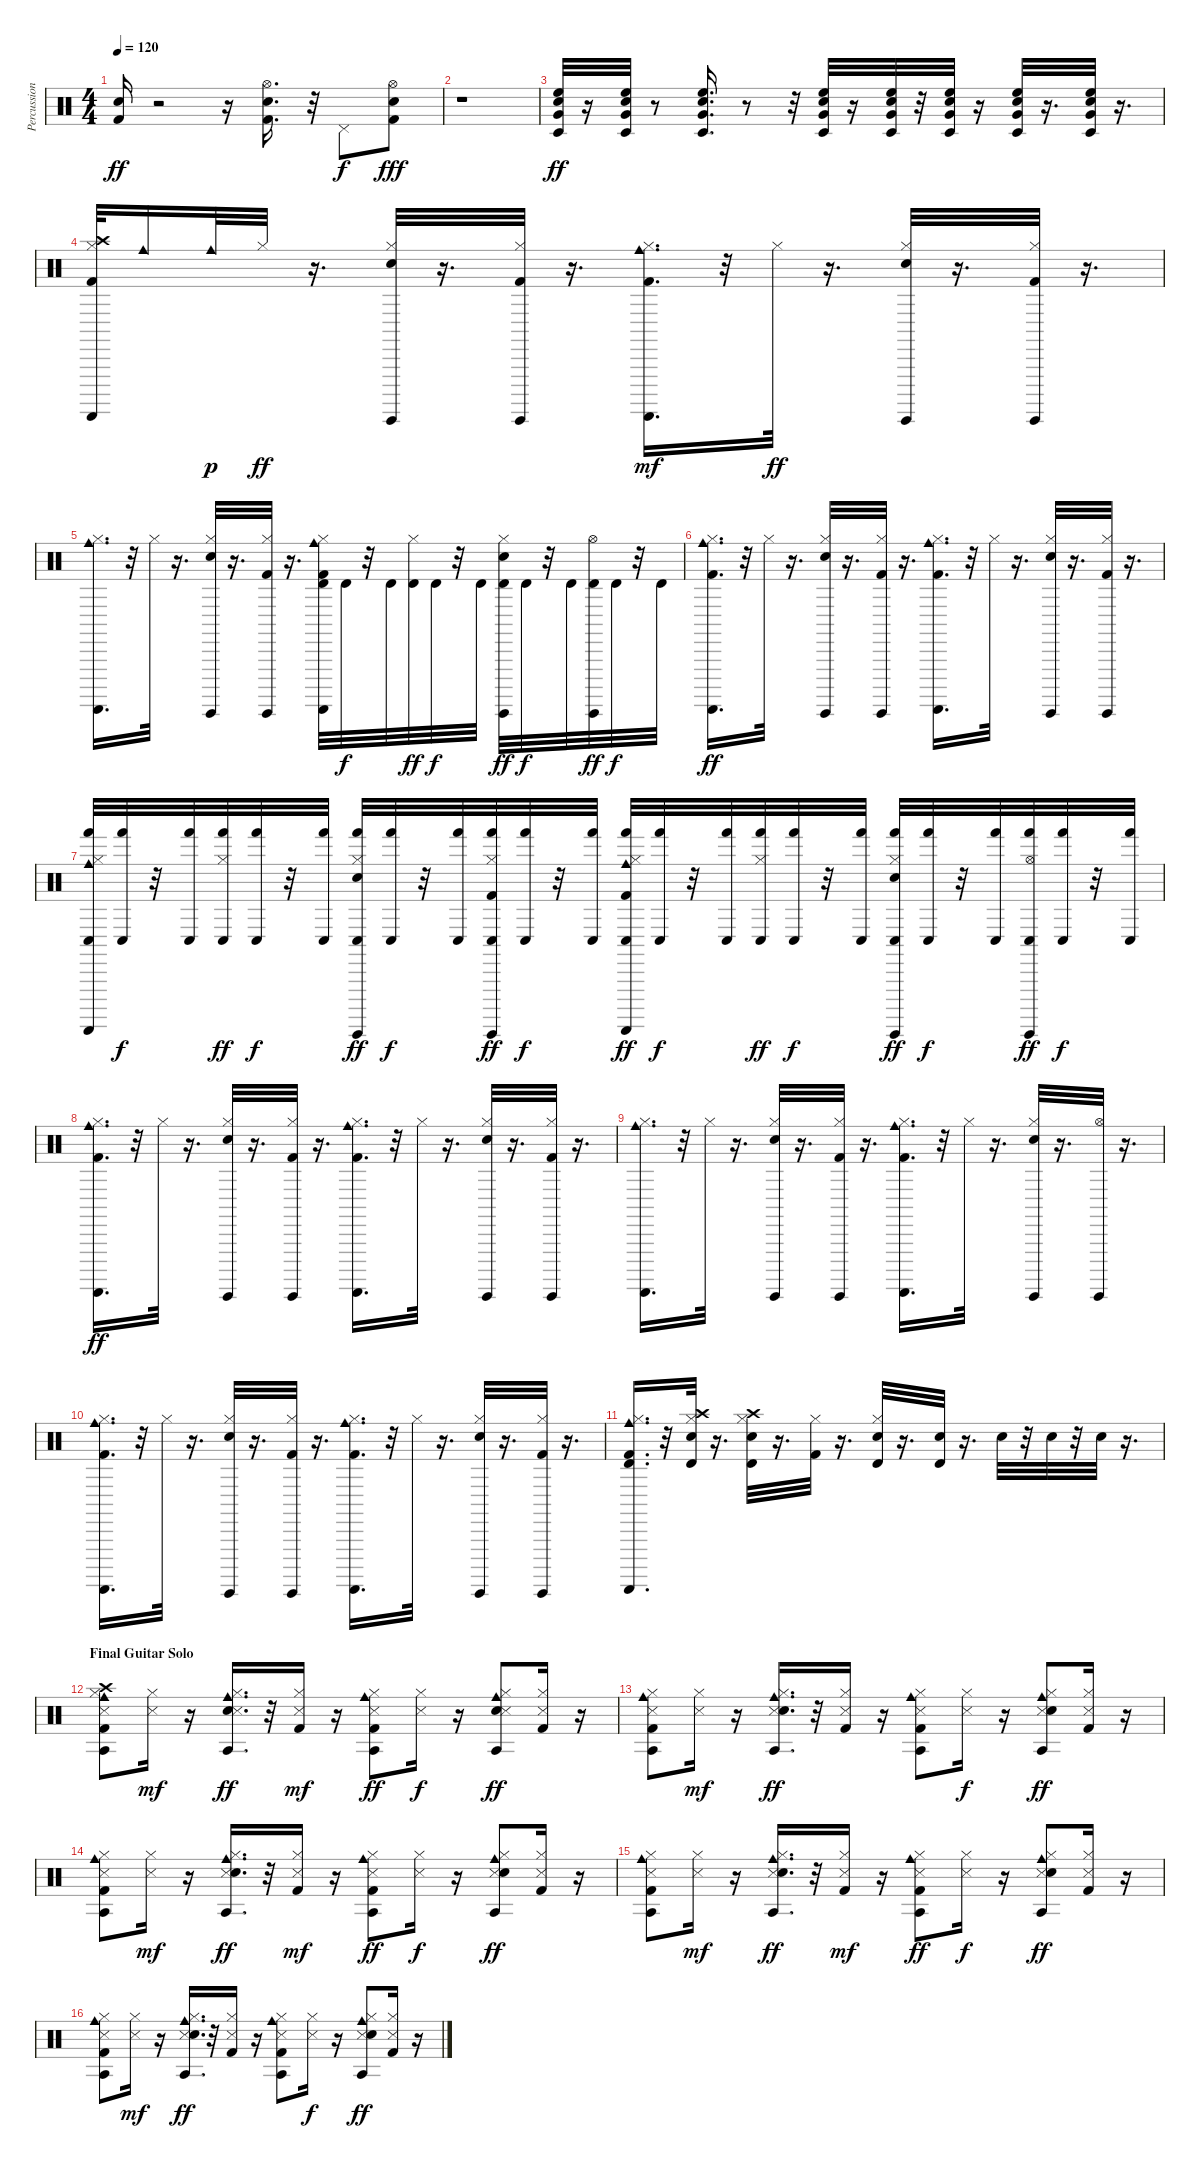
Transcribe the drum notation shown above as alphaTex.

\track ("Percussion" "Percussion") {instrument percussion}
\staff {score}
\articulation defaults
\ts (4 4)
\tempo 120
\clef neutral
\ks c
("Kick (hit) 2" "Snare (hit) 2").16{dy ff} r.2 r.16 ("Snare (hit) 2" "Kick (hit) 2" "Hi-Hat (open)").16{d} r.32 "Pedal Hi-Hat (hit)".8{dy f} ("Kick (hit) 2" "Snare (hit) 2" "Hi-Hat (open)").8{dy fff} |
r.1 |
("Timbale low (hit)" "Electric Snare (hit)" "High Floor Tom (hit)" "Very Low Tom (hit)").32{dy ff} r.16 ("Very Low Tom (hit)" "Timbale low (hit)" "Electric Snare (hit)" "High Floor Tom (hit)").32 r.8 ("Very Low Tom (hit)" "Timbale low (hit)" "High Floor Tom (hit)" "Electric Snare (hit)").16{d} r.8 r.32 ("Very Low Tom (hit)" "Electric Snare (hit)" "Timbale low (hit)" "High Floor Tom (hit)").32 r.16 ("Very Low Tom (hit)" "Timbale low (hit)" "Electric Snare (hit)" "High Floor Tom (hit)").32 r.32 ("Very Low Tom (hit)" "High Floor Tom (hit)" "Timbale low (hit)" "Electric Snare (hit)").32 r.16 ("Very Low Tom (hit)" "High Floor Tom (hit)" "Electric Snare (hit)" "Timbale low (hit)").32 r.16{d} ("Very Low Tom (hit)" "Electric Snare (hit)" "High Floor Tom (hit)" "Timbale low (hit)").32 r.16{d} |
("Kick (hit) 2" "Hi-Hat (closed)" "Crash high (hit)" "Guiro (scrap-return)").32 "Cowbell medium (hit)".16 "Cowbell medium (hit)".32{dy p} "Hi-Hat (closed)".32{dy ff} r.16{d} ("Guiro (hit)" "Snare (hit) 2" "Hi-Hat (closed)").32 r.16{d} ("Hi-Hat (closed)" "Kick (hit) 2" "Guiro (hit)").32 r.16{d} ("Guiro (scrap-return)" "Kick (hit) 2" "Hi-Hat (closed)" "Cowbell medium (hit)").16{d dy mf} r.32 "Hi-Hat (closed)".32{dy ff} r.16{d} ("Hi-Hat (closed)" "Guiro (hit)" "Snare (hit) 2").32 r.16{d} ("Kick (hit) 2" "Guiro (hit)" "Hi-Hat (closed)").32 r.16{d} |
("Cowbell medium (hit)" "Guiro (scrap-return)" "Hi-Hat (closed)").16{d} r.32 "Hi-Hat (closed)".32 r.16{d} ("Guiro (hit)" "Snare (hit) 2" "Hi-Hat (closed)").32 r.16{d} ("Hi-Hat (closed)" "Kick (hit) 2" "Guiro (hit)").32 r.16{d} ("Guiro (scrap-return)" "Kick (hit) 2" "Hi-Hat (closed)" "Timbale high (hit)" "Cowbell medium (hit)").32 "Timbale high (hit)".32{dy f} r.32 "Timbale high (hit)".32 ("Timbale high (hit)" "Hi-Hat (closed)").32{dy ff} "Timbale high (hit)".32{dy f} r.32 "Timbale high (hit)".32 ("Timbale high (hit)" "Guiro (hit)" "Snare (hit) 2" "Hi-Hat (closed)").32{dy ff} "Timbale high (hit)".32{dy f} r.32 "Timbale high (hit)".32 ("Timbale high (hit)" "Hi-Hat (open)" "Guiro (hit)").32{dy ff} "Timbale high (hit)".32{dy f} r.32 "Timbale high (hit)".32 |
("Guiro (scrap-return)" "Kick (hit) 2" "Hi-Hat (closed)" "Cowbell medium (hit)").16{d dy ff} r.32 "Hi-Hat (closed)".32 r.16{d} ("Guiro (hit)" "Snare (hit) 2" "Hi-Hat (closed)").32 r.16{d} ("Hi-Hat (closed)" "Kick (hit) 2" "Guiro (hit)").32 r.16{d} ("Guiro (scrap-return)" "Kick (hit) 2" "Hi-Hat (closed)" "Cowbell medium (hit)").16{d} r.32 "Hi-Hat (closed)".32 r.16{d} ("Guiro (hit)" "Snare (hit) 2" "Hi-Hat (closed)").32 r.16{d} ("Guiro (hit)" "Hi-Hat (closed)" "Kick (hit) 2").32 r.16{d} |
("Conga low (hit)" "Guiro (scrap-return)" "Hi-Hat (closed)" "Hand (hit)" "Cowbell medium (hit)").32 ("Conga low (hit)" "Hand (hit)").32{dy f} r.32 ("Conga low (hit)" "Hand (hit)").32 ("Conga low (hit)" "Hi-Hat (closed)" "Hand (hit)").32{dy ff} ("Conga low (hit)" "Hand (hit)").32{dy f} r.32 ("Conga low (hit)" "Hand (hit)").32 ("Conga low (hit)" "Hand (hit)" "Guiro (hit)" "Snare (hit) 2" "Hi-Hat (closed)").32{dy ff} ("Conga low (hit)" "Hand (hit)").32{dy f} r.32 ("Conga low (hit)" "Hand (hit)").32 ("Conga low (hit)" "Hand (hit)" "Hi-Hat (closed)" "Kick (hit) 2" "Guiro (hit)").32{dy ff} ("Conga low (hit)" "Hand (hit)").32{dy f} r.32 ("Conga low (hit)" "Hand (hit)").32 ("Cowbell medium (hit)" "Hand (hit)" "Guiro (scrap-return)" "Kick (hit) 2" "Hi-Hat (closed)" "Conga low (hit)").32{dy ff} ("Conga low (hit)" "Hand (hit)").32{dy f} r.32 ("Conga low (hit)" "Hand (hit)").32 ("Conga low (hit)" "Hand (hit)" "Hi-Hat (closed)").32{dy ff} ("Hand (hit)" "Conga low (hit)").32{dy f} r.32 ("Conga low (hit)" "Hand (hit)").32 ("Hand (hit)" "Guiro (hit)" "Snare (hit) 2" "Hi-Hat (closed)" "Conga low (hit)").32{dy ff} ("Conga low (hit)" "Hand (hit)").32{dy f} r.32 ("Conga low (hit)" "Hand (hit)").32 ("Conga low (hit)" "Hand (hit)" "Hi-Hat (open)" "Guiro (hit)").32{dy ff} ("Conga low (hit)" "Hand (hit)").32{dy f} r.32 ("Conga low (hit)" "Hand (hit)").32 |
("Guiro (scrap-return)" "Kick (hit) 2" "Hi-Hat (closed)" "Cowbell medium (hit)").16{d dy ff} r.32 "Hi-Hat (closed)".32 r.16{d} ("Guiro (hit)" "Snare (hit) 2" "Hi-Hat (closed)").32 r.16{d} ("Hi-Hat (closed)" "Kick (hit) 2" "Guiro (hit)").32 r.16{d} ("Cowbell medium (hit)" "Guiro (scrap-return)" "Kick (hit) 2" "Hi-Hat (closed)").16{d} r.32 "Hi-Hat (closed)".32 r.16{d} ("Guiro (hit)" "Snare (hit) 2" "Hi-Hat (closed)").32 r.16{d} ("Guiro (hit)" "Hi-Hat (closed)" "Kick (hit) 2").32 r.16{d} |
("Cowbell medium (hit)" "Guiro (scrap-return)" "Hi-Hat (closed)").16{d} r.32 "Hi-Hat (closed)".32 r.16{d} ("Guiro (hit)" "Snare (hit) 2" "Hi-Hat (closed)").32 r.16{d} ("Hi-Hat (closed)" "Kick (hit) 2" "Guiro (hit)").32 r.16{d} ("Guiro (scrap-return)" "Kick (hit) 2" "Hi-Hat (closed)" "Cowbell medium (hit)").16{d} r.32 "Hi-Hat (closed)".32 r.16{d} ("Guiro (hit)" "Snare (hit) 2" "Hi-Hat (closed)").32 r.16{d} ("Hi-Hat (open)" "Guiro (hit)").32 r.16{d} |
("Guiro (scrap-return)" "Kick (hit) 2" "Hi-Hat (closed)" "Cowbell medium (hit)").16{d} r.32 "Hi-Hat (closed)".32 r.16{d} ("Guiro (hit)" "Snare (hit) 2" "Hi-Hat (closed)").32 r.16{d} ("Hi-Hat (closed)" "Kick (hit) 2" "Guiro (hit)").32 r.16{d} ("Guiro (scrap-return)" "Kick (hit) 2" "Hi-Hat (closed)" "Cowbell medium (hit)").16{d} r.32 "Hi-Hat (closed)".32 r.16{d} ("Guiro (hit)" "Snare (hit) 2" "Hi-Hat (closed)").32 r.16{d} ("Guiro (hit)" "Hi-Hat (closed)" "Kick (hit) 2").32 r.16{d} |
("Hi-Hat (closed)" "Guiro (scrap-return)" "Kick (hit) 2" "Timbale high (hit)" "Cowbell medium (hit)").16{d} r.32 ("Crash high (hit)" "Hi-Hat (closed)" "Electric Snare (hit)" "Timbale high (hit)").32 r.16{d} ("Crash high (hit)" "Hi-Hat (closed)" "Electric Snare (hit)" "Timbale high (hit)").32 r.16{d} ("Hi-Hat (closed)" "Kick (hit) 2").32 r.16{d} ("Hi-Hat (closed)" "Timbale high (hit)" "Electric Snare (hit)").32 r.16{d} ("Electric Snare (hit)" "Timbale high (hit)").32 r.16{d} "Electric Snare (hit)".32 r.32 "Electric Snare (hit)".32 r.32 "Electric Snare (hit)".32 r.16{d} |
\section ("" "Final Guitar Solo")
("Kick (hit) 2" "Hi-Hat (closed)" "Agogo tow (hit)" "Crash high (hit)" "Cowbell medium (hit)" "Snare (side stick) 3").8 ("Hi-Hat (closed)" "Snare (side stick) 3").16{dy mf} r.16 ("Snare (hit) 2" "Hi-Hat (closed)" "Agogo tow (hit)" "Cowbell medium (hit)" "Snare (side stick) 3").16{d dy ff} r.32 ("Kick (hit) 2" "Hi-Hat (closed)" "Snare (side stick) 3").16{dy mf} r.16 ("Kick (hit) 2" "Hi-Hat (closed)" "Agogo tow (hit)" "Cowbell medium (hit)" "Snare (side stick) 3").8{dy ff} ("Hi-Hat (closed)" "Snare (side stick) 3").16{dy f} r.16 ("Snare (hit) 2" "Hi-Hat (closed)" "Agogo tow (hit)" "Cowbell medium (hit)" "Snare (side stick) 3").8{dy ff} ("Kick (hit) 2" "Hi-Hat (closed)" "Snare (side stick) 3").16 r.16 |
("Cowbell medium (hit)" "Snare (side stick) 3" "Hi-Hat (closed)" "Agogo tow (hit)" "Kick (hit) 2").8 ("Snare (side stick) 3" "Hi-Hat (closed)").16{dy mf} r.16 ("Cowbell medium (hit)" "Snare (side stick) 3" "Hi-Hat (closed)" "Agogo tow (hit)" "Snare (hit) 2").16{d dy ff} r.32 ("Snare (side stick) 3" "Hi-Hat (closed)" "Kick (hit) 2").16 r.16 ("Cowbell medium (hit)" "Snare (side stick) 3" "Hi-Hat (closed)" "Agogo tow (hit)" "Kick (hit) 2").8 ("Snare (side stick) 3" "Hi-Hat (closed)").16{dy f} r.16 ("Cowbell medium (hit)" "Snare (side stick) 3" "Hi-Hat (closed)" "Agogo tow (hit)" "Snare (hit) 2").8{dy ff} ("Snare (side stick) 3" "Hi-Hat (closed)" "Kick (hit) 2").16 r.16 |
("Snare (side stick) 3" "Agogo tow (hit)" "Kick (hit) 2" "Cowbell medium (hit)" "Hi-Hat (closed)").8 ("Snare (side stick) 3" "Hi-Hat (closed)").16{dy mf} r.16 ("Snare (side stick) 3" "Agogo tow (hit)" "Snare (hit) 2" "Cowbell medium (hit)" "Hi-Hat (closed)").16{d dy ff} r.32 ("Snare (side stick) 3" "Kick (hit) 2" "Hi-Hat (closed)").16{dy mf} r.16 ("Snare (side stick) 3" "Agogo tow (hit)" "Kick (hit) 2" "Cowbell medium (hit)" "Hi-Hat (closed)").8{dy ff} ("Snare (side stick) 3" "Hi-Hat (closed)").16{dy f} r.16 ("Snare (side stick) 3" "Agogo tow (hit)" "Snare (hit) 2" "Cowbell medium (hit)" "Hi-Hat (closed)").8{dy ff} ("Snare (side stick) 3" "Kick (hit) 2" "Hi-Hat (closed)").16 r.16 |
("Cowbell medium (hit)" "Agogo tow (hit)" "Snare (side stick) 3" "Kick (hit) 2" "Hi-Hat (closed)").8 ("Snare (side stick) 3" "Hi-Hat (closed)").16{dy mf} r.16 ("Cowbell medium (hit)" "Agogo tow (hit)" "Snare (side stick) 3" "Snare (hit) 2" "Hi-Hat (closed)").16{d dy ff} r.32 ("Snare (side stick) 3" "Kick (hit) 2" "Hi-Hat (closed)").16{dy mf} r.16 ("Cowbell medium (hit)" "Agogo tow (hit)" "Snare (side stick) 3" "Kick (hit) 2" "Hi-Hat (closed)").8{dy ff} ("Snare (side stick) 3" "Hi-Hat (closed)").16{dy f} r.16 ("Cowbell medium (hit)" "Agogo tow (hit)" "Snare (side stick) 3" "Snare (hit) 2" "Hi-Hat (closed)").8{dy ff} ("Snare (side stick) 3" "Kick (hit) 2" "Hi-Hat (closed)").16 r.16 |
("Hi-Hat (closed)" "Cowbell medium (hit)" "Snare (side stick) 3" "Agogo tow (hit)" "Kick (hit) 2").8 ("Hi-Hat (closed)" "Snare (side stick) 3").16{dy mf} r.16 ("Hi-Hat (closed)" "Cowbell medium (hit)" "Snare (side stick) 3" "Agogo tow (hit)" "Snare (hit) 2").16{d dy ff} r.32 ("Hi-Hat (closed)" "Snare (side stick) 3" "Kick (hit) 2").16 r.16 ("Hi-Hat (closed)" "Cowbell medium (hit)" "Snare (side stick) 3" "Agogo tow (hit)" "Kick (hit) 2").8 ("Hi-Hat (closed)" "Snare (side stick) 3").16{dy f} r.16 ("Hi-Hat (closed)" "Cowbell medium (hit)" "Snare (side stick) 3" "Agogo tow (hit)" "Snare (hit) 2").8{dy ff} ("Hi-Hat (closed)" "Snare (side stick) 3" "Kick (hit) 2").16 r.16
